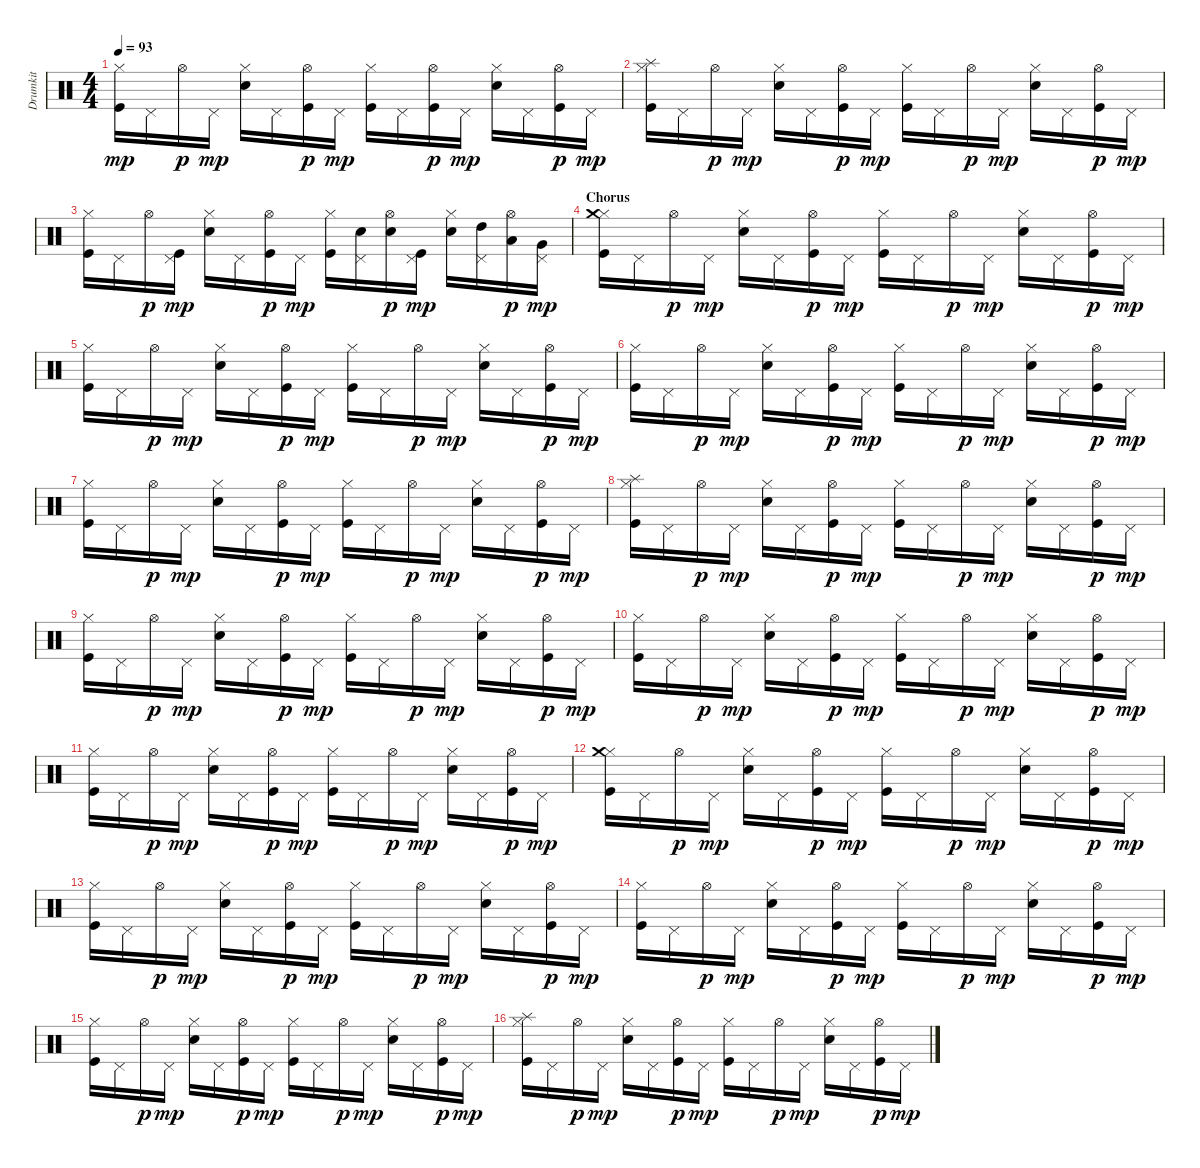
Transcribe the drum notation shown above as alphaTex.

\track ("Drumkit" "Drumkit") {instrument percussion}
\staff {score}
\articulation defaults
\ts (4 4)
\tempo 93
\clef neutral
\ks c
("Hi-Hat (closed)" "Kick (hit)").16{dy mp} "Pedal Hi-Hat (hit)".16 "Hi-Hat (open)".16{dy p} "Pedal Hi-Hat (hit)".16{dy mp} ("Hi-Hat (closed)" "Snare (hit) 2").16 "Pedal Hi-Hat (hit)".16 ("Hi-Hat (open)" "Kick (hit)").16{dy p} "Pedal Hi-Hat (hit)".16{dy mp} ("Hi-Hat (closed)" "Kick (hit)").16 "Pedal Hi-Hat (hit)".16 ("Hi-Hat (open)" "Kick (hit)").16{dy p} "Pedal Hi-Hat (hit)".16{dy mp} ("Hi-Hat (closed)" "Snare (hit) 2").16 "Pedal Hi-Hat (hit)".16 ("Hi-Hat (open)" "Kick (hit)").16{dy p} "Pedal Hi-Hat (hit)".16{dy mp} |
("Hi-Hat (closed)" "Splash (hit)" "Kick (hit)").16 "Pedal Hi-Hat (hit)".16 "Hi-Hat (open)".16{dy p} "Pedal Hi-Hat (hit)".16{dy mp} ("Hi-Hat (closed)" "Snare (hit) 2").16 "Pedal Hi-Hat (hit)".16 ("Hi-Hat (open)" "Kick (hit)").16{dy p} "Pedal Hi-Hat (hit)".16{dy mp} ("Hi-Hat (closed)" "Kick (hit)").16 "Pedal Hi-Hat (hit)".16 "Hi-Hat (open)".16{dy p} "Pedal Hi-Hat (hit)".16{dy mp} ("Hi-Hat (closed)" "Snare (hit) 2").16 "Pedal Hi-Hat (hit)".16 ("Hi-Hat (open)" "Kick (hit)").16{dy p} "Pedal Hi-Hat (hit)".16{dy mp} |
("Hi-Hat (closed)" "Kick (hit)").16 "Pedal Hi-Hat (hit)".16 "Hi-Hat (open)".16{dy p} ("Pedal Hi-Hat (hit)" "Kick (hit)").16{dy mp} ("Hi-Hat (closed)" "Snare (hit) 2").16 "Pedal Hi-Hat (hit)".16 ("Hi-Hat (open)" "Kick (hit)").16{dy p} "Pedal Hi-Hat (hit)".16{dy mp} ("Hi-Hat (closed)" "Kick (hit)").16 ("Pedal Hi-Hat (hit)" "Snare (hit) 2").16 ("Hi-Hat (open)" "Snare (hit) 2").16{dy p} ("Pedal Hi-Hat (hit)" "Kick (hit)").16{dy mp} ("Hi-Hat (closed)" "Snare (hit) 2").16 ("Pedal Hi-Hat (hit)" "High Tom (hit)").16 ("Hi-Hat (open)" "Low Tom (hit)").16{dy p} ("Pedal Hi-Hat (hit)" "Very Low Tom (hit)").16{dy mp} |
\section ("" "Chorus")
("Hi-Hat (closed)" "Crash medium (hit)" "Kick (hit)").16 "Pedal Hi-Hat (hit)".16 "Hi-Hat (open)".16{dy p} "Pedal Hi-Hat (hit)".16{dy mp} ("Hi-Hat (closed)" "Snare (hit) 2").16 "Pedal Hi-Hat (hit)".16 ("Hi-Hat (open)" "Kick (hit)").16{dy p} "Pedal Hi-Hat (hit)".16{dy mp} ("Hi-Hat (closed)" "Kick (hit)").16 "Pedal Hi-Hat (hit)".16 "Hi-Hat (open)".16{dy p} "Pedal Hi-Hat (hit)".16{dy mp} ("Hi-Hat (closed)" "Snare (hit) 2").16 "Pedal Hi-Hat (hit)".16 ("Hi-Hat (open)" "Kick (hit)").16{dy p} "Pedal Hi-Hat (hit)".16{dy mp} |
("Hi-Hat (closed)" "Kick (hit)").16 "Pedal Hi-Hat (hit)".16 "Hi-Hat (open)".16{dy p} "Pedal Hi-Hat (hit)".16{dy mp} ("Hi-Hat (closed)" "Snare (hit) 2").16 "Pedal Hi-Hat (hit)".16 ("Hi-Hat (open)" "Kick (hit)").16{dy p} "Pedal Hi-Hat (hit)".16{dy mp} ("Hi-Hat (closed)" "Kick (hit)").16 "Pedal Hi-Hat (hit)".16 "Hi-Hat (open)".16{dy p} "Pedal Hi-Hat (hit)".16{dy mp} ("Hi-Hat (closed)" "Snare (hit) 2").16 "Pedal Hi-Hat (hit)".16 ("Hi-Hat (open)" "Kick (hit)").16{dy p} "Pedal Hi-Hat (hit)".16{dy mp} |
("Hi-Hat (closed)" "Kick (hit)").16 "Pedal Hi-Hat (hit)".16 "Hi-Hat (open)".16{dy p} "Pedal Hi-Hat (hit)".16{dy mp} ("Hi-Hat (closed)" "Snare (hit) 2").16 "Pedal Hi-Hat (hit)".16 ("Hi-Hat (open)" "Kick (hit)").16{dy p} "Pedal Hi-Hat (hit)".16{dy mp} ("Hi-Hat (closed)" "Kick (hit)").16 "Pedal Hi-Hat (hit)".16 "Hi-Hat (open)".16{dy p} "Pedal Hi-Hat (hit)".16{dy mp} ("Hi-Hat (closed)" "Snare (hit) 2").16 "Pedal Hi-Hat (hit)".16 ("Hi-Hat (open)" "Kick (hit)").16{dy p} "Pedal Hi-Hat (hit)".16{dy mp} |
("Hi-Hat (closed)" "Kick (hit)").16 "Pedal Hi-Hat (hit)".16 "Hi-Hat (open)".16{dy p} "Pedal Hi-Hat (hit)".16{dy mp} ("Hi-Hat (closed)" "Snare (hit) 2").16 "Pedal Hi-Hat (hit)".16 ("Hi-Hat (open)" "Kick (hit)").16{dy p} "Pedal Hi-Hat (hit)".16{dy mp} ("Hi-Hat (closed)" "Kick (hit)").16 "Pedal Hi-Hat (hit)".16 "Hi-Hat (open)".16{dy p} "Pedal Hi-Hat (hit)".16{dy mp} ("Hi-Hat (closed)" "Snare (hit) 2").16 "Pedal Hi-Hat (hit)".16 ("Hi-Hat (open)" "Kick (hit)").16{dy p} "Pedal Hi-Hat (hit)".16{dy mp} |
("Hi-Hat (closed)" "Splash (hit)" "Kick (hit)").16 "Pedal Hi-Hat (hit)".16 "Hi-Hat (open)".16{dy p} "Pedal Hi-Hat (hit)".16{dy mp} ("Hi-Hat (closed)" "Snare (hit) 2").16 "Pedal Hi-Hat (hit)".16 ("Hi-Hat (open)" "Kick (hit)").16{dy p} "Pedal Hi-Hat (hit)".16{dy mp} ("Hi-Hat (closed)" "Kick (hit)").16 "Pedal Hi-Hat (hit)".16 "Hi-Hat (open)".16{dy p} "Pedal Hi-Hat (hit)".16{dy mp} ("Hi-Hat (closed)" "Snare (hit) 2").16 "Pedal Hi-Hat (hit)".16 ("Hi-Hat (open)" "Kick (hit)").16{dy p} "Pedal Hi-Hat (hit)".16{dy mp} |
("Hi-Hat (closed)" "Kick (hit)").16 "Pedal Hi-Hat (hit)".16 "Hi-Hat (open)".16{dy p} "Pedal Hi-Hat (hit)".16{dy mp} ("Hi-Hat (closed)" "Snare (hit) 2").16 "Pedal Hi-Hat (hit)".16 ("Hi-Hat (open)" "Kick (hit)").16{dy p} "Pedal Hi-Hat (hit)".16{dy mp} ("Hi-Hat (closed)" "Kick (hit)").16 "Pedal Hi-Hat (hit)".16 "Hi-Hat (open)".16{dy p} "Pedal Hi-Hat (hit)".16{dy mp} ("Hi-Hat (closed)" "Snare (hit) 2").16 "Pedal Hi-Hat (hit)".16 ("Hi-Hat (open)" "Kick (hit)").16{dy p} "Pedal Hi-Hat (hit)".16{dy mp} |
("Hi-Hat (closed)" "Kick (hit)").16 "Pedal Hi-Hat (hit)".16 "Hi-Hat (open)".16{dy p} "Pedal Hi-Hat (hit)".16{dy mp} ("Hi-Hat (closed)" "Snare (hit) 2").16 "Pedal Hi-Hat (hit)".16 ("Hi-Hat (open)" "Kick (hit)").16{dy p} "Pedal Hi-Hat (hit)".16{dy mp} ("Hi-Hat (closed)" "Kick (hit)").16 "Pedal Hi-Hat (hit)".16 "Hi-Hat (open)".16{dy p} "Pedal Hi-Hat (hit)".16{dy mp} ("Hi-Hat (closed)" "Snare (hit) 2").16 "Pedal Hi-Hat (hit)".16 ("Hi-Hat (open)" "Kick (hit)").16{dy p} "Pedal Hi-Hat (hit)".16{dy mp} |
("Hi-Hat (closed)" "Kick (hit)").16 "Pedal Hi-Hat (hit)".16 "Hi-Hat (open)".16{dy p} "Pedal Hi-Hat (hit)".16{dy mp} ("Hi-Hat (closed)" "Snare (hit) 2").16 "Pedal Hi-Hat (hit)".16 ("Hi-Hat (open)" "Kick (hit)").16{dy p} "Pedal Hi-Hat (hit)".16{dy mp} ("Hi-Hat (closed)" "Kick (hit)").16 "Pedal Hi-Hat (hit)".16 "Hi-Hat (open)".16{dy p} "Pedal Hi-Hat (hit)".16{dy mp} ("Hi-Hat (closed)" "Snare (hit) 2").16 "Pedal Hi-Hat (hit)".16 ("Hi-Hat (open)" "Kick (hit)").16{dy p} "Pedal Hi-Hat (hit)".16{dy mp} |
("Hi-Hat (closed)" "Crash medium (hit)" "Kick (hit)").16 "Pedal Hi-Hat (hit)".16 "Hi-Hat (open)".16{dy p} "Pedal Hi-Hat (hit)".16{dy mp} ("Hi-Hat (closed)" "Snare (hit) 2").16 "Pedal Hi-Hat (hit)".16 ("Hi-Hat (open)" "Kick (hit)").16{dy p} "Pedal Hi-Hat (hit)".16{dy mp} ("Hi-Hat (closed)" "Kick (hit)").16 "Pedal Hi-Hat (hit)".16 "Hi-Hat (open)".16{dy p} "Pedal Hi-Hat (hit)".16{dy mp} ("Hi-Hat (closed)" "Snare (hit) 2").16 "Pedal Hi-Hat (hit)".16 ("Hi-Hat (open)" "Kick (hit)").16{dy p} "Pedal Hi-Hat (hit)".16{dy mp} |
("Hi-Hat (closed)" "Kick (hit)").16 "Pedal Hi-Hat (hit)".16 "Hi-Hat (open)".16{dy p} "Pedal Hi-Hat (hit)".16{dy mp} ("Hi-Hat (closed)" "Snare (hit) 2").16 "Pedal Hi-Hat (hit)".16 ("Hi-Hat (open)" "Kick (hit)").16{dy p} "Pedal Hi-Hat (hit)".16{dy mp} ("Hi-Hat (closed)" "Kick (hit)").16 "Pedal Hi-Hat (hit)".16 "Hi-Hat (open)".16{dy p} "Pedal Hi-Hat (hit)".16{dy mp} ("Hi-Hat (closed)" "Snare (hit) 2").16 "Pedal Hi-Hat (hit)".16 ("Hi-Hat (open)" "Kick (hit)").16{dy p} "Pedal Hi-Hat (hit)".16{dy mp} |
("Hi-Hat (closed)" "Kick (hit)").16 "Pedal Hi-Hat (hit)".16 "Hi-Hat (open)".16{dy p} "Pedal Hi-Hat (hit)".16{dy mp} ("Hi-Hat (closed)" "Snare (hit) 2").16 "Pedal Hi-Hat (hit)".16 ("Hi-Hat (open)" "Kick (hit)").16{dy p} "Pedal Hi-Hat (hit)".16{dy mp} ("Hi-Hat (closed)" "Kick (hit)").16 "Pedal Hi-Hat (hit)".16 "Hi-Hat (open)".16{dy p} "Pedal Hi-Hat (hit)".16{dy mp} ("Hi-Hat (closed)" "Snare (hit) 2").16 "Pedal Hi-Hat (hit)".16 ("Hi-Hat (open)" "Kick (hit)").16{dy p} "Pedal Hi-Hat (hit)".16{dy mp} |
("Hi-Hat (closed)" "Kick (hit)").16 "Pedal Hi-Hat (hit)".16 "Hi-Hat (open)".16{dy p} "Pedal Hi-Hat (hit)".16{dy mp} ("Hi-Hat (closed)" "Snare (hit) 2").16 "Pedal Hi-Hat (hit)".16 ("Hi-Hat (open)" "Kick (hit)").16{dy p} "Pedal Hi-Hat (hit)".16{dy mp} ("Hi-Hat (closed)" "Kick (hit)").16 "Pedal Hi-Hat (hit)".16 "Hi-Hat (open)".16{dy p} "Pedal Hi-Hat (hit)".16{dy mp} ("Hi-Hat (closed)" "Snare (hit) 2").16 "Pedal Hi-Hat (hit)".16 ("Hi-Hat (open)" "Kick (hit)").16{dy p} "Pedal Hi-Hat (hit)".16{dy mp} |
("Hi-Hat (closed)" "Splash (hit)" "Kick (hit)").16 "Pedal Hi-Hat (hit)".16 "Hi-Hat (open)".16{dy p} "Pedal Hi-Hat (hit)".16{dy mp} ("Hi-Hat (closed)" "Snare (hit) 2").16 "Pedal Hi-Hat (hit)".16 ("Hi-Hat (open)" "Kick (hit)").16{dy p} "Pedal Hi-Hat (hit)".16{dy mp} ("Hi-Hat (closed)" "Kick (hit)").16 "Pedal Hi-Hat (hit)".16 "Hi-Hat (open)".16{dy p} "Pedal Hi-Hat (hit)".16{dy mp} ("Hi-Hat (closed)" "Snare (hit) 2").16 "Pedal Hi-Hat (hit)".16 ("Hi-Hat (open)" "Kick (hit)").16{dy p} "Pedal Hi-Hat (hit)".16{dy mp}
